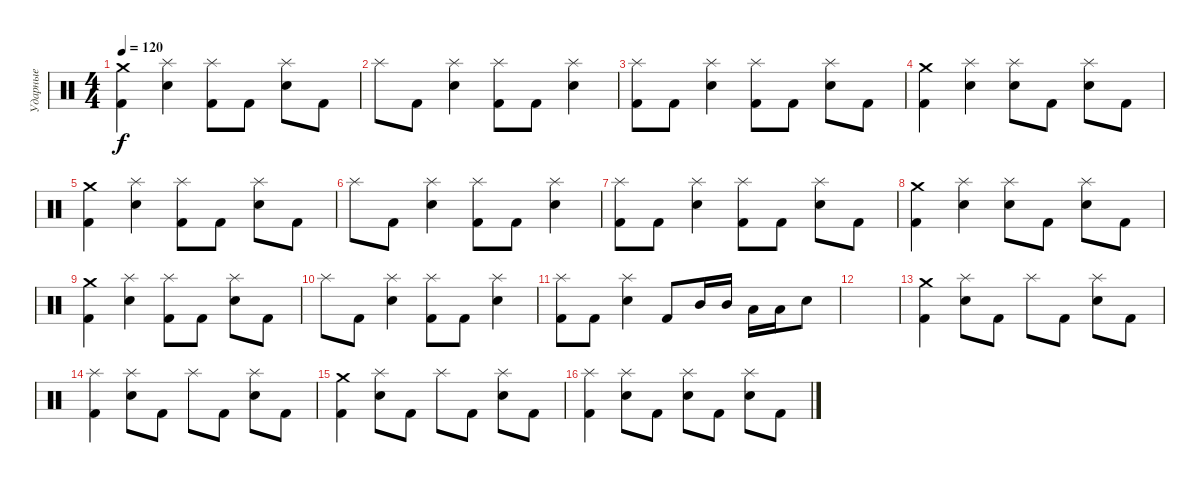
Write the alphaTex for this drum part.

\track ("Ударные" "Ударные") {instrument percussion}
\staff {score}
\articulation defaults
\ts (4 4)
\tempo 120
\clef neutral
\ks c
("Crash medium (hit)" "Kick (hit) 2").4{dy f} ("Splash (hit)" "Electric Snare (hit)").4 ("Splash (hit)" "Kick (hit) 2").8 "Kick (hit) 2".8 ("Splash (hit)" "Electric Snare (hit)").8 "Kick (hit) 2".8 |
"Splash (hit)".8 "Kick (hit) 2".8 ("Splash (hit)" "Electric Snare (hit)").4 ("Splash (hit)" "Kick (hit) 2").8 "Kick (hit) 2".8 ("Splash (hit)" "Electric Snare (hit)").4 |
("Splash (hit)" "Kick (hit) 2").8 "Kick (hit) 2".8 ("Splash (hit)" "Electric Snare (hit)").4 ("Splash (hit)" "Kick (hit) 2").8 "Kick (hit) 2".8 ("Splash (hit)" "Electric Snare (hit)").8 "Kick (hit) 2".8 |
("Crash medium (hit)" "Kick (hit) 2").4 ("Splash (hit)" "Electric Snare (hit)").4 ("Splash (hit)" "Electric Snare (hit)").8 "Kick (hit) 2".8 ("Splash (hit)" "Electric Snare (hit)").8 "Kick (hit) 2".8 |
("Crash medium (hit)" "Kick (hit) 2").4 ("Splash (hit)" "Electric Snare (hit)").4 ("Splash (hit)" "Kick (hit) 2").8 "Kick (hit) 2".8 ("Splash (hit)" "Electric Snare (hit)").8 "Kick (hit) 2".8 |
"Splash (hit)".8 "Kick (hit) 2".8 ("Splash (hit)" "Electric Snare (hit)").4 ("Splash (hit)" "Kick (hit) 2").8 "Kick (hit) 2".8 ("Splash (hit)" "Electric Snare (hit)").4 |
("Splash (hit)" "Kick (hit) 2").8 "Kick (hit) 2".8 ("Splash (hit)" "Electric Snare (hit)").4 ("Splash (hit)" "Kick (hit) 2").8 "Kick (hit) 2".8 ("Splash (hit)" "Electric Snare (hit)").8 "Kick (hit) 2".8 |
("Crash medium (hit)" "Kick (hit) 2").4 ("Splash (hit)" "Electric Snare (hit)").4 ("Splash (hit)" "Electric Snare (hit)").8 "Kick (hit) 2".8 ("Splash (hit)" "Electric Snare (hit)").8 "Kick (hit) 2".8 |
("Crash medium (hit)" "Kick (hit) 2").4 ("Splash (hit)" "Electric Snare (hit)").4 ("Splash (hit)" "Kick (hit) 2").8 "Kick (hit) 2".8 ("Splash (hit)" "Electric Snare (hit)").8 "Kick (hit) 2".8 |
"Splash (hit)".8 "Kick (hit) 2".8 ("Splash (hit)" "Electric Snare (hit)").4 ("Splash (hit)" "Kick (hit) 2").8 "Kick (hit) 2".8 ("Splash (hit)" "Electric Snare (hit)").4 |
("Splash (hit)" "Kick (hit) 2").8 "Kick (hit) 2".8 ("Splash (hit)" "Electric Snare (hit)").4 "Kick (hit) 2".8 "Mid Tom (hit)".16 "Mid Tom (hit)".16 "Low Tom (hit)".16 "Low Tom (hit)".16 "Electric Snare (hit)".8 |
|
("Crash medium (hit)" "Kick (hit) 2").4 ("Splash (hit)" "Electric Snare (hit)").8 "Kick (hit) 2".8 "Splash (hit)".8 "Kick (hit) 2".8 ("Splash (hit)" "Electric Snare (hit)").8 "Kick (hit) 2".8 |
("Splash (hit)" "Kick (hit) 2").4 ("Splash (hit)" "Electric Snare (hit)").8 "Kick (hit) 2".8 "Splash (hit)".8 "Kick (hit) 2".8 ("Splash (hit)" "Electric Snare (hit)").8 "Kick (hit) 2".8 |
("Crash medium (hit)" "Kick (hit) 2").4 ("Splash (hit)" "Electric Snare (hit)").8 "Kick (hit) 2".8 "Splash (hit)".8 "Kick (hit) 2".8 ("Splash (hit)" "Electric Snare (hit)").8 "Kick (hit) 2".8 |
("Splash (hit)" "Kick (hit) 2").4 ("Splash (hit)" "Electric Snare (hit)").8 "Kick (hit) 2".8 ("Splash (hit)" "Electric Snare (hit)").8 "Kick (hit) 2".8 ("Splash (hit)" "Electric Snare (hit)").8 "Kick (hit) 2".8
